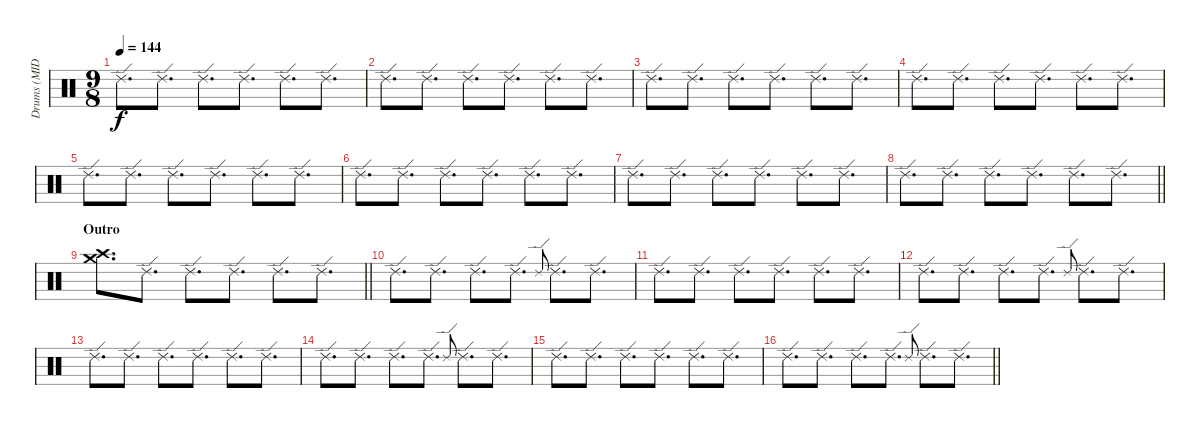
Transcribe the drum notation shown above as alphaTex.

\track ("Drums (MIDI!)" "Drums (MID") {instrument percussion}
\staff {score}
\articulation defaults
\ts (9 8)
\tempo 144
\clef neutral
\ks c "Ride (edge) 2".8{d dy f} "Ride (edge) 2".8{d} "Ride (edge) 2".8{d} "Ride (edge) 2".8{d} "Ride (edge) 2".8{d} "Ride (edge) 2".8{d}
|
"Ride (edge) 2".8{d} "Ride (edge) 2".8{d} "Ride (edge) 2".8{d} "Ride (edge) 2".8{d} "Ride (edge) 2".8{d} "Ride (edge) 2".8{d} |
"Ride (edge) 2".8{d} "Ride (edge) 2".8{d} "Ride (edge) 2".8{d} "Ride (edge) 2".8{d} "Ride (edge) 2".8{d} "Ride (edge) 2".8{d} |
"Ride (edge) 2".8{d} "Ride (edge) 2".8{d} "Ride (edge) 2".8{d} "Ride (edge) 2".8{d} "Ride (edge) 2".8{d} "Ride (edge) 2".8{d} |
"Ride (edge) 2".8{d} "Ride (edge) 2".8{d} "Ride (edge) 2".8{d} "Ride (edge) 2".8{d} "Ride (edge) 2".8{d} "Ride (edge) 2".8{d} |
"Ride (edge) 2".8{d} "Ride (edge) 2".8{d} "Ride (edge) 2".8{d} "Ride (edge) 2".8{d} "Ride (edge) 2".8{d} "Ride (edge) 2".8{d} |
"Ride (edge) 2".8{d} "Ride (edge) 2".8{d} "Ride (edge) 2".8{d} "Ride (edge) 2".8{d} "Ride (edge) 2".8{d} "Ride (edge) 2".8{d} |
\barLineRight lightlight "Ride (edge) 2".8{d} "Ride (edge) 2".8{d} "Ride (edge) 2".8{d} "Ride (edge) 2".8{d} "Ride (edge) 2".8{d} "Ride (edge) 2".8{d}
|
\section ("" "Outro")
\barLineRight lightlight
("Crash medium (hit)" "Crash high (hit)").8{d volume 10} "Ride (edge) 2".8{d} "Ride (edge) 2".8{d} "Ride (edge) 2".8{d} "Ride (edge) 2".8{d} "Ride (edge) 2".8{d} |
"Ride (edge) 2".8{d} "Ride (edge) 2".8{d} "Ride (edge) 2".8{d} "Ride (edge) 2".8{d} "Ride (edge) 2".8{gr onbeat} "Ride (edge) 2".8{d} "Ride (edge) 2".8{d} |
"Ride (edge) 2".8{d} "Ride (edge) 2".8{d} "Ride (edge) 2".8{d} "Ride (edge) 2".8{d} "Ride (edge) 2".8{d} "Ride (edge) 2".8{d} |
"Ride (edge) 2".8{d} "Ride (edge) 2".8{d} "Ride (edge) 2".8{d} "Ride (edge) 2".8{d} "Ride (edge) 2".8{gr onbeat} "Ride (edge) 2".8{d} "Ride (edge) 2".8{d} |
"Ride (edge) 2".8{d} "Ride (edge) 2".8{d} "Ride (edge) 2".8{d} "Ride (edge) 2".8{d} "Ride (edge) 2".8{d} "Ride (edge) 2".8{d} |
"Ride (edge) 2".8{d} "Ride (edge) 2".8{d} "Ride (edge) 2".8{d} "Ride (edge) 2".8{d} "Ride (edge) 2".8{gr onbeat} "Ride (edge) 2".8{d} "Ride (edge) 2".8{d} |
"Ride (edge) 2".8{d} "Ride (edge) 2".8{d} "Ride (edge) 2".8{d} "Ride (edge) 2".8{d} "Ride (edge) 2".8{d} "Ride (edge) 2".8{d} |
\barLineRight lightlight "Ride (edge) 2".8{d} "Ride (edge) 2".8{d} "Ride (edge) 2".8{d} "Ride (edge) 2".8{d} "Ride (edge) 2".8{gr onbeat} "Ride (edge) 2".8{d} "Ride (edge) 2".8{d}
